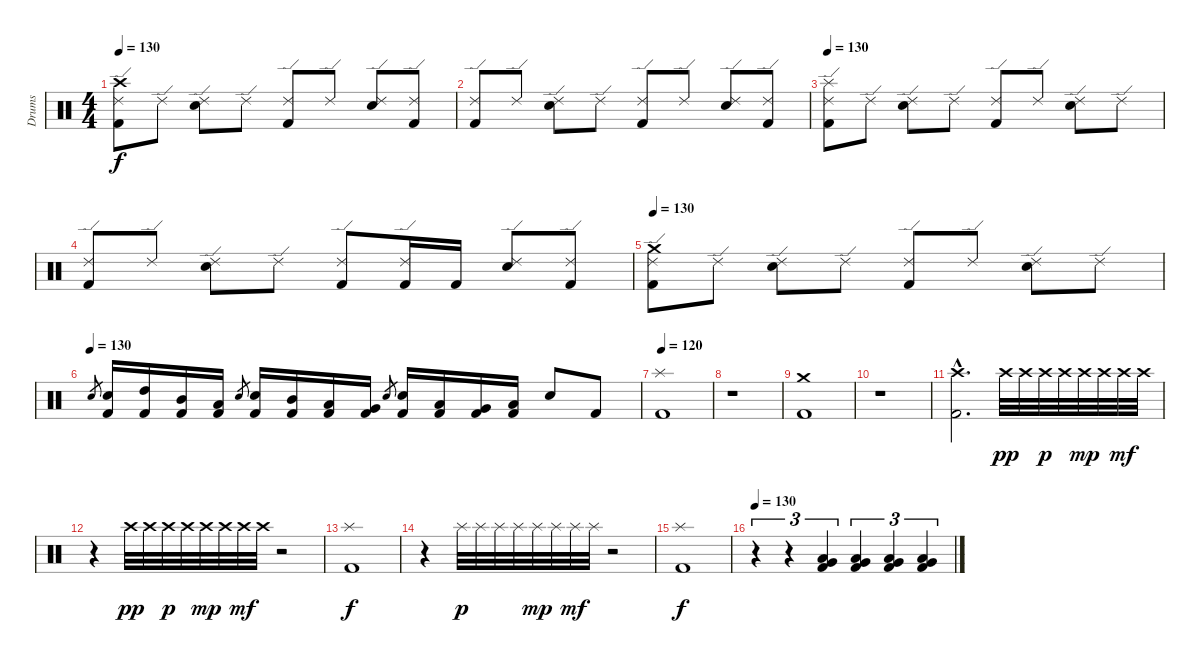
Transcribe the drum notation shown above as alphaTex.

\track ("Drums" "Drums") {instrument percussion}
\staff {score}
\articulation defaults
\ts (4 4)
\tempo 130
\clef neutral
\ks c
("Kick (hit) 2" "Ride (edge) 2" "Crash high (hit)").8{dy f} "Ride (edge) 2".8 ("Snare (hit) 2" "Ride (edge) 2").8 "Ride (edge) 2".8 ("Kick (hit) 2" "Ride (edge) 2").8 "Ride (edge) 2".8 ("Snare (hit) 2" "Ride (edge) 2").8 ("Kick (hit) 2" "Ride (edge) 2").8 |
("Kick (hit) 2" "Ride (edge) 2").8 "Ride (edge) 2".8 ("Snare (hit) 2" "Ride (edge) 2").8 "Ride (edge) 2".8 ("Kick (hit) 2" "Ride (edge) 2").8 "Ride (edge) 2".8 ("Snare (hit) 2" "Ride (edge) 2").8 ("Kick (hit) 2" "Ride (edge) 2").8 |
\tempo 130
("Kick (hit) 2" "Ride (edge) 2" "Splash (hit)").8 "Ride (edge) 2".8 ("Snare (hit) 2" "Ride (edge) 2").8 "Ride (edge) 2".8 ("Kick (hit) 2" "Ride (edge) 2").8 "Ride (edge) 2".8 ("Snare (hit) 2" "Ride (edge) 2").8 "Ride (edge) 2".8 |
("Kick (hit) 2" "Ride (edge) 2").8 "Ride (edge) 2".8 ("Snare (hit) 2" "Ride (edge) 2").8 "Ride (edge) 2".8 ("Kick (hit) 2" "Ride (edge) 2").8 ("Kick (hit) 2" "Ride (edge) 2").16 "Kick (hit) 2".16 ("Snare (hit) 2" "Ride (edge) 2").8 ("Kick (hit) 2" "Ride (edge) 2").8 |
\tempo 130
("Kick (hit) 2" "Ride (edge) 2" "Crash medium (hit)").8 "Ride (edge) 2".8 ("Snare (hit) 2" "Ride (edge) 2").8 "Ride (edge) 2".8 ("Kick (hit) 2" "Ride (edge) 2").8 "Ride (edge) 2".8 ("Snare (hit) 2" "Ride (edge) 2").8 "Ride (edge) 2".8 |
\tempo (130)
"Snare (hit) 2".8{gr} ("Kick (hit) 2" "Snare (hit) 2").16 ("Kick (hit) 2" "High Tom (hit)").16 ("Kick (hit) 2" "Mid Tom (hit)").16 ("Kick (hit) 2" "Low Tom (hit)").16 "Snare (hit) 2".8{gr} ("Kick (hit) 2" "Snare (hit) 2").16 ("Kick (hit) 2" "Mid Tom (hit)").16 ("Kick (hit) 2" "Low Tom (hit)").16 ("Kick (hit) 2" "Very Low Tom (hit)").16 "Snare (hit) 2".8{gr} ("Kick (hit) 2" "Snare (hit) 2").16 ("Kick (hit) 2" "Low Tom (hit)").16 ("Kick (hit) 2" "Very Low Tom (hit)").16 ("Kick (hit) 2" "Low Floor Tom (hit)").16 "Snare (hit) 2".8 "Kick (hit) 2".8 |
\section ("" "")
\tempo 120
("Kick (hit) 2" "Splash (hit)").1 |
r.1 |
("Kick (hit) 2" "Crash medium (hit)").1 |
r.1 |
("Kick (hit) 2"{hac} "Crash high (hit)"{hac}).2{d} "Crash high (hit)".32{dy pp} "Crash high (hit)".32 "Crash high (hit)".32{dy p} "Crash high (hit)".32 "Crash high (hit)".32{dy mp} "Crash high (hit)".32 "Crash high (hit)".32{dy mf} "Crash high (hit)".32 |
r.4 "Crash high (hit)".32{dy pp} "Crash high (hit)".32 "Crash high (hit)".32{dy p} "Crash high (hit)".32 "Crash high (hit)".32{dy mp} "Crash high (hit)".32 "Crash high (hit)".32{dy mf} "Crash high (hit)".32 r.2 |
("Kick (hit) 2" "Splash (hit)").1{dy f} |
r.4 "Splash (hit)".32{dy p} "Splash (hit)".32 "Splash (hit)".32 "Splash (hit)".32 "Splash (hit)".32{dy mp} "Splash (hit)".32 "Splash (hit)".32{dy mf} "Splash (hit)".32 r.2 |
("Kick (hit) 2" "Splash (hit)").1{dy f} |
\tempo 130
r.4{tu (3 2)} r.4{tu (3 2)} ("Kick (hit) 2" "Very Low Tom (hit)" "Low Floor Tom (hit)").4{tu (3 2)} ("Kick (hit) 2" "Very Low Tom (hit)" "Low Floor Tom (hit)").4{tu (3 2)} ("Kick (hit) 2" "Very Low Tom (hit)" "Low Floor Tom (hit)").4{tu (3 2)} ("Kick (hit) 2" "Very Low Tom (hit)" "Low Floor Tom (hit)").4{tu (3 2)}
